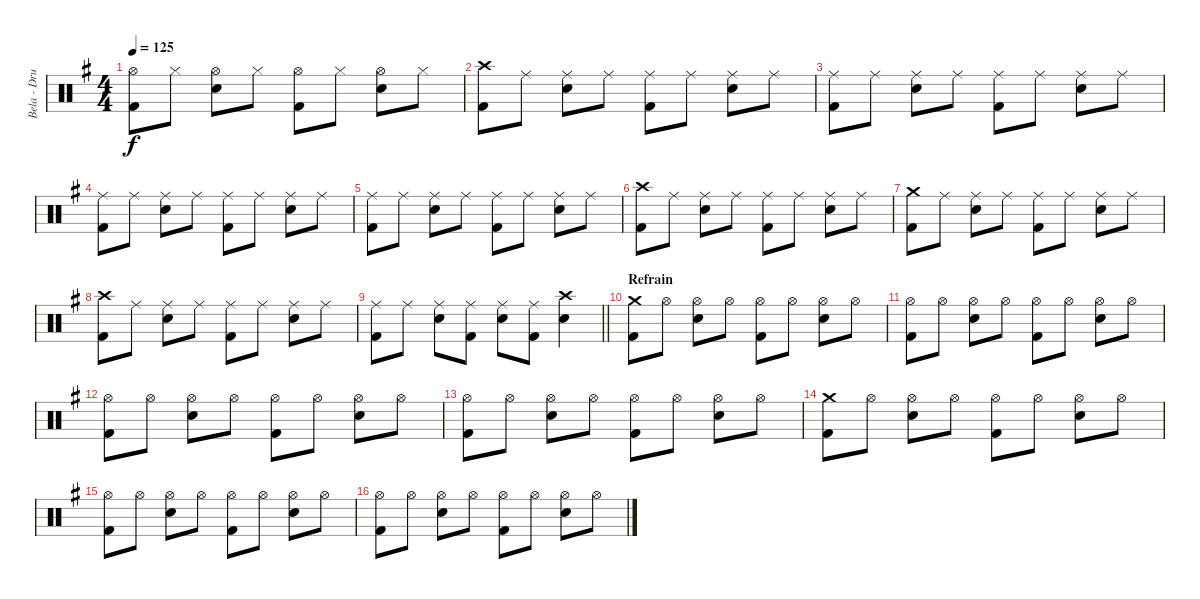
\track ("Bela - Drums" "Bela - Dru") {instrument percussion}
\staff {score}
\articulation defaults
\ts (4 4)
\tempo 125
\clef neutral
\ks g
("Hi-Hat (open)" "Kick (hit) 2").8{dy f} "Hi-Hat (closed)".8 ("Hi-Hat (open)" "Snare (hit) 2").8 "Hi-Hat (closed)".8 ("Hi-Hat (open)" "Kick (hit) 2").8 "Hi-Hat (closed)".8 ("Hi-Hat (open)" "Snare (hit) 2").8 "Hi-Hat (closed)".8 |
("Crash high (hit)" "Kick (hit) 2").8 "Ride (middle)".8 ("Ride (middle)" "Snare (hit) 2").8 "Ride (middle)".8 ("Ride (middle)" "Kick (hit) 2").8 "Ride (middle)".8 ("Ride (middle)" "Snare (hit) 2").8 "Ride (middle)".8 |
("Ride (middle)" "Kick (hit) 2").8 "Ride (middle)".8 ("Ride (middle)" "Snare (hit) 2").8 "Ride (middle)".8 ("Ride (middle)" "Kick (hit) 2").8 "Ride (middle)".8 ("Ride (middle)" "Snare (hit) 2").8 "Ride (middle)".8 |
("Ride (middle)" "Kick (hit) 2").8 "Ride (middle)".8 ("Ride (middle)" "Snare (hit) 2").8 "Ride (middle)".8 ("Ride (middle)" "Kick (hit) 2").8 "Ride (middle)".8 ("Ride (middle)" "Snare (hit) 2").8 "Ride (middle)".8 |
("Ride (middle)" "Kick (hit) 2").8 "Ride (middle)".8 ("Ride (middle)" "Snare (hit) 2").8 "Ride (middle)".8 ("Ride (middle)" "Kick (hit) 2").8 "Ride (middle)".8 ("Ride (middle)" "Snare (hit) 2").8 "Ride (middle)".8 |
("Crash high (hit)" "Kick (hit) 2").8 "Ride (middle)".8 ("Ride (middle)" "Snare (hit) 2").8 "Ride (middle)".8 ("Ride (middle)" "Kick (hit) 2").8 "Ride (middle)".8 ("Ride (middle)" "Snare (hit) 2").8 "Ride (middle)".8 |
("Crash medium (hit)" "Kick (hit) 2").8 "Ride (middle)".8 ("Ride (middle)" "Snare (hit) 2").8 "Ride (middle)".8 ("Ride (middle)" "Kick (hit) 2").8 "Ride (middle)".8 ("Ride (middle)" "Snare (hit) 2").8 "Ride (middle)".8 |
("Crash high (hit)" "Kick (hit) 2").8 "Ride (middle)".8 ("Ride (middle)" "Snare (hit) 2").8 "Ride (middle)".8 ("Ride (middle)" "Kick (hit) 2").8 "Ride (middle)".8 ("Ride (middle)" "Snare (hit) 2").8 "Ride (middle)".8 |
\barLineRight lightlight
("Ride (middle)" "Kick (hit) 2").8 "Ride (middle)".8 ("Ride (middle)" "Snare (hit) 2").8 ("Ride (middle)" "Kick (hit) 2").8 ("Ride (middle)" "Snare (hit) 2").8 ("Ride (middle)" "Kick (hit) 2").8 ("Crash high (hit)" "Snare (hit) 2").4 |
\section ("" "Refrain")
("Crash medium (hit)" "Kick (hit) 2").8 "Hi-Hat (open)".8 ("Hi-Hat (open)" "Snare (hit) 2").8 "Hi-Hat (open)".8 ("Hi-Hat (open)" "Kick (hit) 2").8 "Hi-Hat (open)".8 ("Hi-Hat (open)" "Snare (hit) 2").8 "Hi-Hat (open)".8 |
("Hi-Hat (open)" "Kick (hit) 2").8 "Hi-Hat (open)".8 ("Hi-Hat (open)" "Snare (hit) 2").8 "Hi-Hat (open)".8 ("Hi-Hat (open)" "Kick (hit) 2").8 "Hi-Hat (open)".8 ("Hi-Hat (open)" "Snare (hit) 2").8 "Hi-Hat (open)".8 |
("Hi-Hat (open)" "Kick (hit) 2").8 "Hi-Hat (open)".8 ("Hi-Hat (open)" "Snare (hit) 2").8 "Hi-Hat (open)".8 ("Hi-Hat (open)" "Kick (hit) 2").8 "Hi-Hat (open)".8 ("Hi-Hat (open)" "Snare (hit) 2").8 "Hi-Hat (open)".8 |
("Hi-Hat (open)" "Kick (hit) 2").8 "Hi-Hat (open)".8 ("Hi-Hat (open)" "Snare (hit) 2").8 "Hi-Hat (open)".8 ("Hi-Hat (open)" "Kick (hit) 2").8 "Hi-Hat (open)".8 ("Hi-Hat (open)" "Snare (hit) 2").8 "Hi-Hat (open)".8 |
("Crash medium (hit)" "Kick (hit) 2").8 "Hi-Hat (open)".8 ("Hi-Hat (open)" "Snare (hit) 2").8 "Hi-Hat (open)".8 ("Hi-Hat (open)" "Kick (hit) 2").8 "Hi-Hat (open)".8 ("Hi-Hat (open)" "Snare (hit) 2").8 "Hi-Hat (open)".8 |
("Hi-Hat (open)" "Kick (hit) 2").8 "Hi-Hat (open)".8 ("Hi-Hat (open)" "Snare (hit) 2").8 "Hi-Hat (open)".8 ("Hi-Hat (open)" "Kick (hit) 2").8 "Hi-Hat (open)".8 ("Hi-Hat (open)" "Snare (hit) 2").8 "Hi-Hat (open)".8 |
("Hi-Hat (open)" "Kick (hit) 2").8 "Hi-Hat (open)".8 ("Hi-Hat (open)" "Snare (hit) 2").8 "Hi-Hat (open)".8 ("Hi-Hat (open)" "Kick (hit) 2").8 "Hi-Hat (open)".8 ("Hi-Hat (open)" "Snare (hit) 2").8 "Hi-Hat (open)".8
